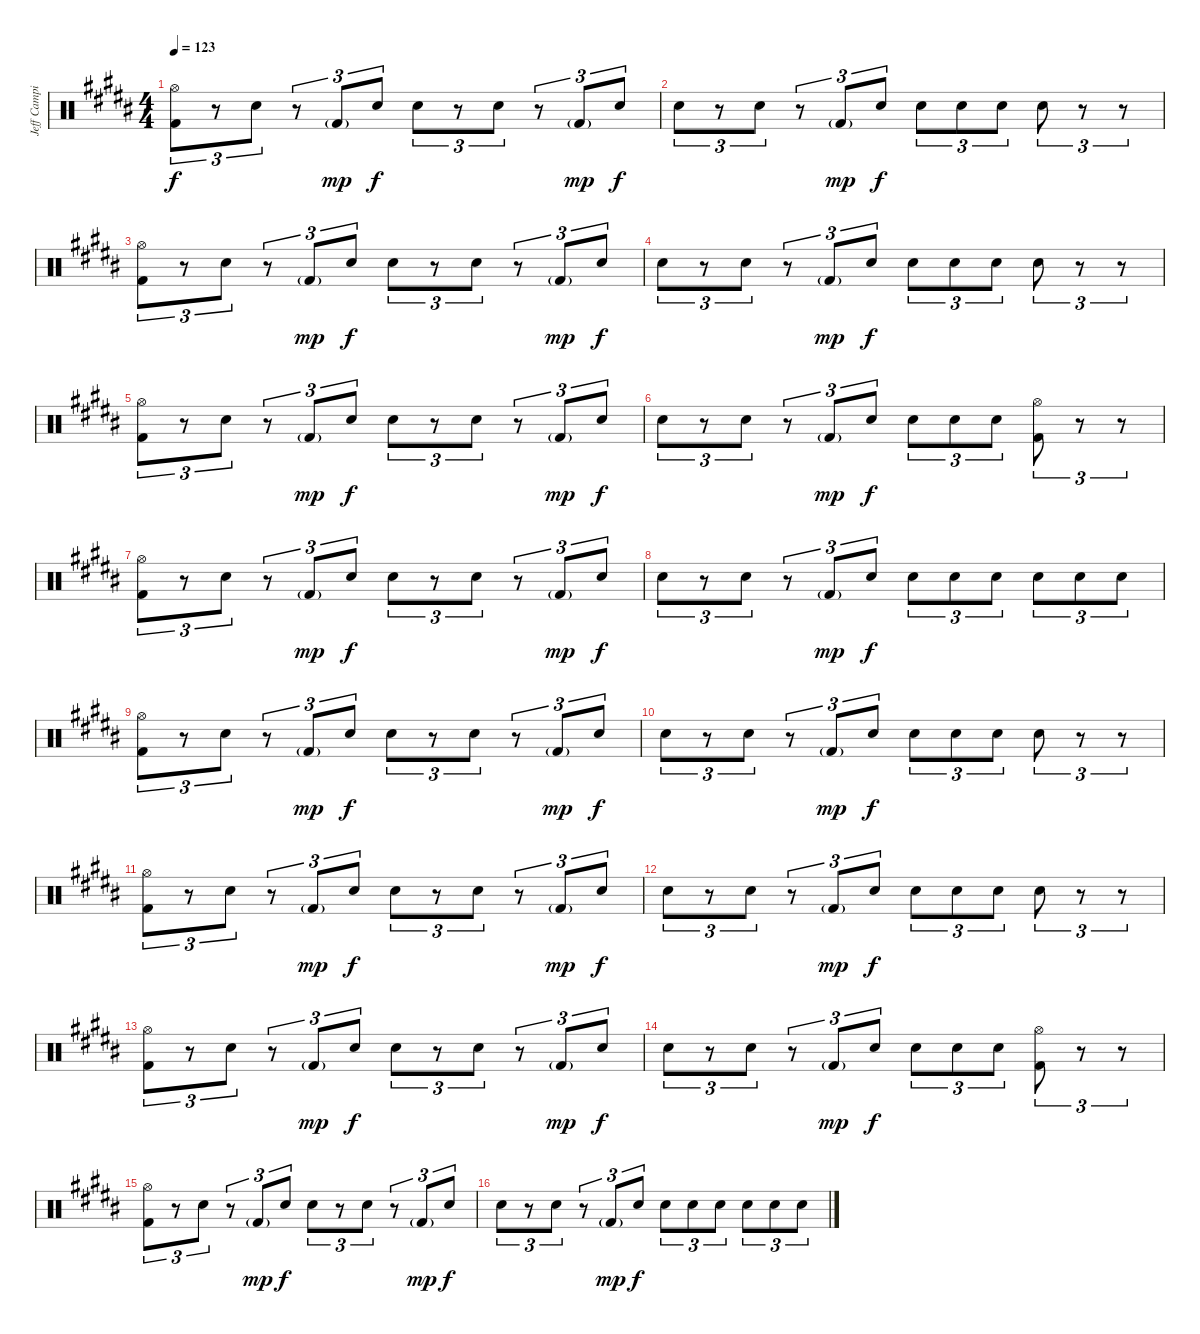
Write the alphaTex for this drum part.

\track ("Jeff Campitelli (Drums)" "Jeff Campi") {instrument percussion}
\staff {score}
\articulation defaults
\ts (4 4)
\tempo 123
\clef neutral
\ks b
("Hi-Hat (open)" "Kick (hit) 2").8{tu (3 2) dy f} r.8{tu (3 2)} "Electric Snare (hit)".8{tu (3 2)} r.8{tu (3 2)} "Kick (hit) 2"{g}.8{tu (3 2) dy mp} "Electric Snare (hit)".8{tu (3 2) dy f} "Electric Snare (hit)".8{tu (3 2)} r.8{tu (3 2)} "Electric Snare (hit)".8{tu (3 2)} r.8{tu (3 2)} "Kick (hit) 2"{g}.8{tu (3 2) dy mp} "Electric Snare (hit)".8{tu (3 2) dy f} |
"Electric Snare (hit)".8{tu (3 2)} r.8{tu (3 2)} "Electric Snare (hit)".8{tu (3 2)} r.8{tu (3 2)} "Kick (hit) 2"{g}.8{tu (3 2) dy mp} "Electric Snare (hit)".8{tu (3 2) dy f} "Electric Snare (hit)".8{tu (3 2)} "Electric Snare (hit)".8{tu (3 2)} "Electric Snare (hit)".8{tu (3 2)} "Electric Snare (hit)".8{tu (3 2)} r.8{tu (3 2)} r.8{tu (3 2)} |
("Hi-Hat (open)" "Kick (hit) 2").8{tu (3 2)} r.8{tu (3 2)} "Electric Snare (hit)".8{tu (3 2)} r.8{tu (3 2)} "Kick (hit) 2"{g}.8{tu (3 2) dy mp} "Electric Snare (hit)".8{tu (3 2) dy f} "Electric Snare (hit)".8{tu (3 2)} r.8{tu (3 2)} "Electric Snare (hit)".8{tu (3 2)} r.8{tu (3 2)} "Kick (hit) 2"{g}.8{tu (3 2) dy mp} "Electric Snare (hit)".8{tu (3 2) dy f} |
"Electric Snare (hit)".8{tu (3 2)} r.8{tu (3 2)} "Electric Snare (hit)".8{tu (3 2)} r.8{tu (3 2)} "Kick (hit) 2"{g}.8{tu (3 2) dy mp} "Electric Snare (hit)".8{tu (3 2) dy f} "Electric Snare (hit)".8{tu (3 2)} "Electric Snare (hit)".8{tu (3 2)} "Electric Snare (hit)".8{tu (3 2)} "Electric Snare (hit)".8{tu (3 2)} r.8{tu (3 2)} r.8{tu (3 2)} |
("Hi-Hat (open)" "Kick (hit) 2").8{tu (3 2)} r.8{tu (3 2)} "Electric Snare (hit)".8{tu (3 2)} r.8{tu (3 2)} "Kick (hit) 2"{g}.8{tu (3 2) dy mp} "Electric Snare (hit)".8{tu (3 2) dy f} "Electric Snare (hit)".8{tu (3 2)} r.8{tu (3 2)} "Electric Snare (hit)".8{tu (3 2)} r.8{tu (3 2)} "Kick (hit) 2"{g}.8{tu (3 2) dy mp} "Electric Snare (hit)".8{tu (3 2) dy f} |
"Electric Snare (hit)".8{tu (3 2)} r.8{tu (3 2)} "Electric Snare (hit)".8{tu (3 2)} r.8{tu (3 2)} "Kick (hit) 2"{g}.8{tu (3 2) dy mp} "Electric Snare (hit)".8{tu (3 2) dy f} "Electric Snare (hit)".8{tu (3 2)} "Electric Snare (hit)".8{tu (3 2)} "Electric Snare (hit)".8{tu (3 2)} ("Hi-Hat (open)" "Kick (hit) 2").8{tu (3 2)} r.8{tu (3 2)} r.8{tu (3 2)} |
("Hi-Hat (open)" "Kick (hit) 2").8{tu (3 2)} r.8{tu (3 2)} "Electric Snare (hit)".8{tu (3 2)} r.8{tu (3 2)} "Kick (hit) 2"{g}.8{tu (3 2) dy mp} "Electric Snare (hit)".8{tu (3 2) dy f} "Electric Snare (hit)".8{tu (3 2)} r.8{tu (3 2)} "Electric Snare (hit)".8{tu (3 2)} r.8{tu (3 2)} "Kick (hit) 2"{g}.8{tu (3 2) dy mp} "Electric Snare (hit)".8{tu (3 2) dy f} |
"Electric Snare (hit)".8{tu (3 2)} r.8{tu (3 2)} "Electric Snare (hit)".8{tu (3 2)} r.8{tu (3 2)} "Kick (hit) 2"{g}.8{tu (3 2) dy mp} "Electric Snare (hit)".8{tu (3 2) dy f} "Electric Snare (hit)".8{tu (3 2)} "Electric Snare (hit)".8{tu (3 2)} "Electric Snare (hit)".8{tu (3 2)} "Electric Snare (hit)".8{tu (3 2)} "Electric Snare (hit)".8{tu (3 2)} "Electric Snare (hit)".8{tu (3 2)} |
("Hi-Hat (open)" "Kick (hit) 2").8{tu (3 2)} r.8{tu (3 2)} "Electric Snare (hit)".8{tu (3 2)} r.8{tu (3 2)} "Kick (hit) 2"{g}.8{tu (3 2) dy mp} "Electric Snare (hit)".8{tu (3 2) dy f} "Electric Snare (hit)".8{tu (3 2)} r.8{tu (3 2)} "Electric Snare (hit)".8{tu (3 2)} r.8{tu (3 2)} "Kick (hit) 2"{g}.8{tu (3 2) dy mp} "Electric Snare (hit)".8{tu (3 2) dy f} |
"Electric Snare (hit)".8{tu (3 2)} r.8{tu (3 2)} "Electric Snare (hit)".8{tu (3 2)} r.8{tu (3 2)} "Kick (hit) 2"{g}.8{tu (3 2) dy mp} "Electric Snare (hit)".8{tu (3 2) dy f} "Electric Snare (hit)".8{tu (3 2)} "Electric Snare (hit)".8{tu (3 2)} "Electric Snare (hit)".8{tu (3 2)} "Electric Snare (hit)".8{tu (3 2)} r.8{tu (3 2)} r.8{tu (3 2)} |
("Hi-Hat (open)" "Kick (hit) 2").8{tu (3 2)} r.8{tu (3 2)} "Electric Snare (hit)".8{tu (3 2)} r.8{tu (3 2)} "Kick (hit) 2"{g}.8{tu (3 2) dy mp} "Electric Snare (hit)".8{tu (3 2) dy f} "Electric Snare (hit)".8{tu (3 2)} r.8{tu (3 2)} "Electric Snare (hit)".8{tu (3 2)} r.8{tu (3 2)} "Kick (hit) 2"{g}.8{tu (3 2) dy mp} "Electric Snare (hit)".8{tu (3 2) dy f} |
"Electric Snare (hit)".8{tu (3 2)} r.8{tu (3 2)} "Electric Snare (hit)".8{tu (3 2)} r.8{tu (3 2)} "Kick (hit) 2"{g}.8{tu (3 2) dy mp} "Electric Snare (hit)".8{tu (3 2) dy f} "Electric Snare (hit)".8{tu (3 2)} "Electric Snare (hit)".8{tu (3 2)} "Electric Snare (hit)".8{tu (3 2)} "Electric Snare (hit)".8{tu (3 2)} r.8{tu (3 2)} r.8{tu (3 2)} |
("Hi-Hat (open)" "Kick (hit) 2").8{tu (3 2)} r.8{tu (3 2)} "Electric Snare (hit)".8{tu (3 2)} r.8{tu (3 2)} "Kick (hit) 2"{g}.8{tu (3 2) dy mp} "Electric Snare (hit)".8{tu (3 2) dy f} "Electric Snare (hit)".8{tu (3 2)} r.8{tu (3 2)} "Electric Snare (hit)".8{tu (3 2)} r.8{tu (3 2)} "Kick (hit) 2"{g}.8{tu (3 2) dy mp} "Electric Snare (hit)".8{tu (3 2) dy f} |
"Electric Snare (hit)".8{tu (3 2)} r.8{tu (3 2)} "Electric Snare (hit)".8{tu (3 2)} r.8{tu (3 2)} "Kick (hit) 2"{g}.8{tu (3 2) dy mp} "Electric Snare (hit)".8{tu (3 2) dy f} "Electric Snare (hit)".8{tu (3 2)} "Electric Snare (hit)".8{tu (3 2)} "Electric Snare (hit)".8{tu (3 2)} ("Hi-Hat (open)" "Kick (hit) 2").8{tu (3 2)} r.8{tu (3 2)} r.8{tu (3 2)} |
("Hi-Hat (open)" "Kick (hit) 2").8{tu (3 2)} r.8{tu (3 2)} "Electric Snare (hit)".8{tu (3 2)} r.8{tu (3 2)} "Kick (hit) 2"{g}.8{tu (3 2) dy mp} "Electric Snare (hit)".8{tu (3 2) dy f} "Electric Snare (hit)".8{tu (3 2)} r.8{tu (3 2)} "Electric Snare (hit)".8{tu (3 2)} r.8{tu (3 2)} "Kick (hit) 2"{g}.8{tu (3 2) dy mp} "Electric Snare (hit)".8{tu (3 2) dy f} |
"Electric Snare (hit)".8{tu (3 2)} r.8{tu (3 2)} "Electric Snare (hit)".8{tu (3 2)} r.8{tu (3 2)} "Kick (hit) 2"{g}.8{tu (3 2) dy mp} "Electric Snare (hit)".8{tu (3 2) dy f} "Electric Snare (hit)".8{tu (3 2)} "Electric Snare (hit)".8{tu (3 2)} "Electric Snare (hit)".8{tu (3 2)} "Electric Snare (hit)".8{tu (3 2)} "Electric Snare (hit)".8{tu (3 2)} "Electric Snare (hit)".8{tu (3 2)}
